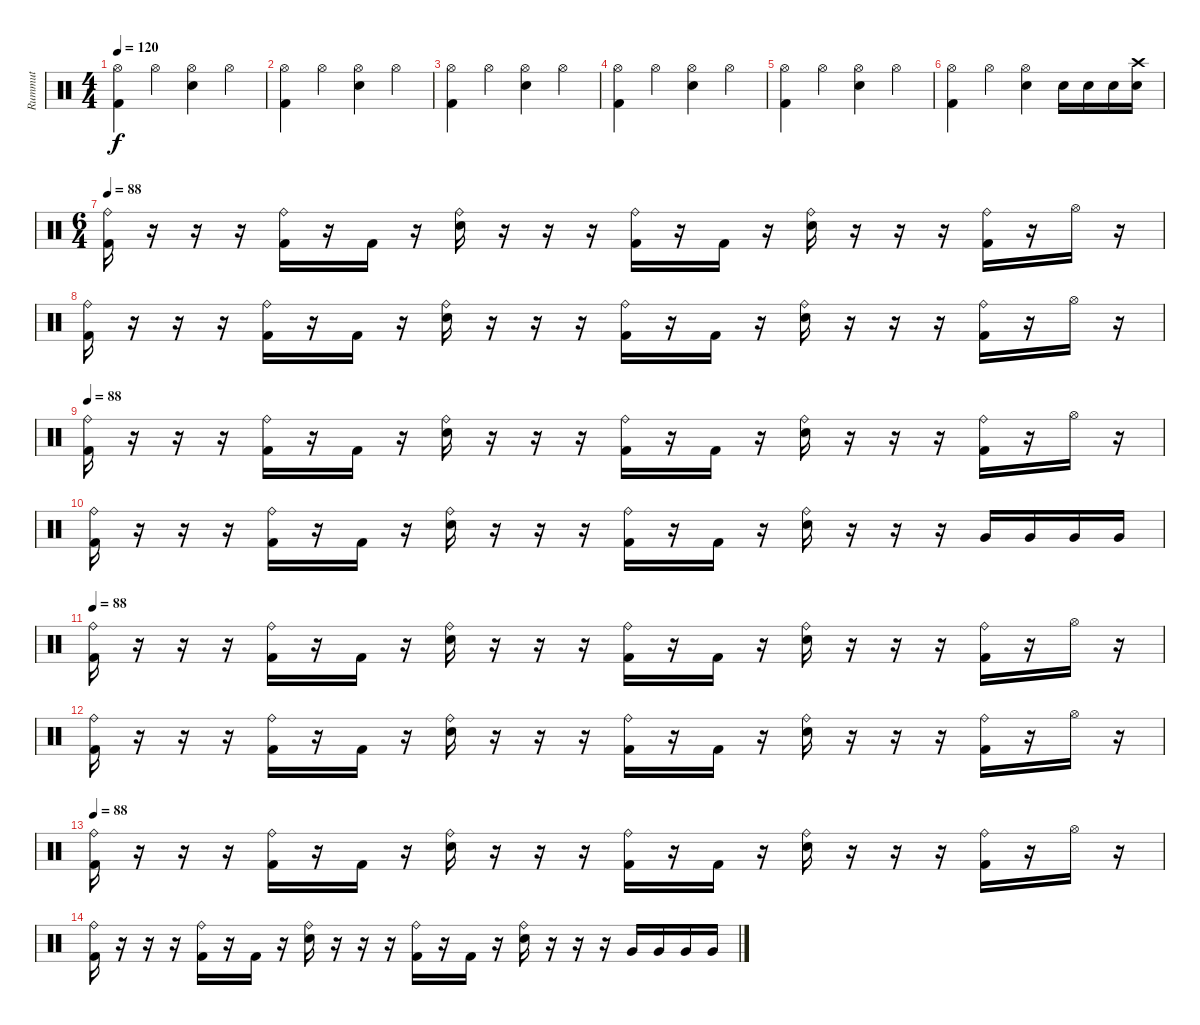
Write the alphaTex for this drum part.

\track ("Rummut" "Rummut") {instrument percussion}
\staff {score}
\articulation defaults
\ts (4 4)
\tempo 120
\clef neutral
\ks c
("Hi-Hat (open)" "Kick (hit) 2").4{dy f} "Hi-Hat (open)".4 ("Hi-Hat (open)" "Snare (hit) 2").4 "Hi-Hat (open)".4 |
("Hi-Hat (open)" "Kick (hit) 2").4 "Hi-Hat (open)".4 ("Hi-Hat (open)" "Snare (hit) 2").4 "Hi-Hat (open)".4 |
("Hi-Hat (open)" "Kick (hit) 2").4 "Hi-Hat (open)".4 ("Hi-Hat (open)" "Snare (hit) 2").4 "Hi-Hat (open)".4 |
("Hi-Hat (open)" "Kick (hit) 2").4 "Hi-Hat (open)".4 ("Hi-Hat (open)" "Snare (hit) 2").4 "Hi-Hat (open)".4 |
("Hi-Hat (open)" "Kick (hit) 2").4 "Hi-Hat (open)".4 ("Hi-Hat (open)" "Snare (hit) 2").4 "Hi-Hat (open)".4 |
("Hi-Hat (open)" "Kick (hit) 2").4 "Hi-Hat (open)".4 ("Hi-Hat (open)" "Snare (hit) 2").4 "Snare (hit) 2".16 "Snare (hit) 2".16 "Snare (hit) 2".16 ("Snare (hit) 2" "Crash high (hit)").16 |
\ts (6 4)
\tempo 88
("Ride (bell)" "Kick (hit) 2").16 r.16 r.16 r.16 ("Ride (bell)" "Kick (hit) 2").16 r.16 "Kick (hit) 2".16 r.16 ("Ride (bell)" "Snare (hit) 2").16 r.16 r.16 r.16 ("Ride (bell)" "Kick (hit) 2").16 r.16 "Kick (hit) 2".16 r.16 ("Ride (bell)" "Snare (hit) 2").16 r.16 r.16 r.16 ("Ride (bell)" "Kick (hit) 2").16 r.16 "Hi-Hat (open)".16 r.16 |
("Ride (bell)" "Kick (hit) 2").16 r.16 r.16 r.16 ("Ride (bell)" "Kick (hit) 2").16 r.16 "Kick (hit) 2".16 r.16 ("Ride (bell)" "Snare (hit) 2").16 r.16 r.16 r.16 ("Ride (bell)" "Kick (hit) 2").16 r.16 "Kick (hit) 2".16 r.16 ("Ride (bell)" "Snare (hit) 2").16 r.16 r.16 r.16 ("Ride (bell)" "Kick (hit) 2").16 r.16 "Hi-Hat (open)".16 r.16 |
\tempo 88
("Ride (bell)" "Kick (hit) 2").16 r.16 r.16 r.16 ("Ride (bell)" "Kick (hit) 2").16 r.16 "Kick (hit) 2".16 r.16 ("Ride (bell)" "Snare (hit) 2").16 r.16 r.16 r.16 ("Ride (bell)" "Kick (hit) 2").16 r.16 "Kick (hit) 2".16 r.16 ("Ride (bell)" "Snare (hit) 2").16 r.16 r.16 r.16 ("Ride (bell)" "Kick (hit) 2").16 r.16 "Hi-Hat (open)".16 r.16 |
("Ride (bell)" "Kick (hit) 2").16 r.16 r.16 r.16 ("Ride (bell)" "Kick (hit) 2").16 r.16 "Kick (hit) 2".16 r.16 ("Ride (bell)" "Snare (hit) 2").16 r.16 r.16 r.16 ("Ride (bell)" "Kick (hit) 2").16 r.16 "Kick (hit) 2".16 r.16 ("Ride (bell)" "Snare (hit) 2").16 r.16 r.16 r.16 "Very Low Tom (hit)".16 "Very Low Tom (hit)".16 "Very Low Tom (hit)".16 "Very Low Tom (hit)".16 |
\tempo 88
("Ride (bell)" "Kick (hit) 2").16 r.16 r.16 r.16 ("Ride (bell)" "Kick (hit) 2").16 r.16 "Kick (hit) 2".16 r.16 ("Ride (bell)" "Snare (hit) 2").16 r.16 r.16 r.16 ("Ride (bell)" "Kick (hit) 2").16 r.16 "Kick (hit) 2".16 r.16 ("Ride (bell)" "Snare (hit) 2").16 r.16 r.16 r.16 ("Ride (bell)" "Kick (hit) 2").16 r.16 "Hi-Hat (open)".16 r.16 |
("Ride (bell)" "Kick (hit) 2").16 r.16 r.16 r.16 ("Ride (bell)" "Kick (hit) 2").16 r.16 "Kick (hit) 2".16 r.16 ("Ride (bell)" "Snare (hit) 2").16 r.16 r.16 r.16 ("Ride (bell)" "Kick (hit) 2").16 r.16 "Kick (hit) 2".16 r.16 ("Ride (bell)" "Snare (hit) 2").16 r.16 r.16 r.16 ("Ride (bell)" "Kick (hit) 2").16 r.16 "Hi-Hat (open)".16 r.16 |
\tempo 88
("Ride (bell)" "Kick (hit) 2").16 r.16 r.16 r.16 ("Ride (bell)" "Kick (hit) 2").16 r.16 "Kick (hit) 2".16 r.16 ("Ride (bell)" "Snare (hit) 2").16 r.16 r.16 r.16 ("Ride (bell)" "Kick (hit) 2").16 r.16 "Kick (hit) 2".16 r.16 ("Ride (bell)" "Snare (hit) 2").16 r.16 r.16 r.16 ("Ride (bell)" "Kick (hit) 2").16 r.16 "Hi-Hat (open)".16 r.16 |
("Ride (bell)" "Kick (hit) 2").16 r.16 r.16 r.16 ("Ride (bell)" "Kick (hit) 2").16 r.16 "Kick (hit) 2".16 r.16 ("Ride (bell)" "Snare (hit) 2").16 r.16 r.16 r.16 ("Ride (bell)" "Kick (hit) 2").16 r.16 "Kick (hit) 2".16 r.16 ("Ride (bell)" "Snare (hit) 2").16 r.16 r.16 r.16 "Very Low Tom (hit)".16 "Very Low Tom (hit)".16 "Very Low Tom (hit)".16 "Very Low Tom (hit)".16
